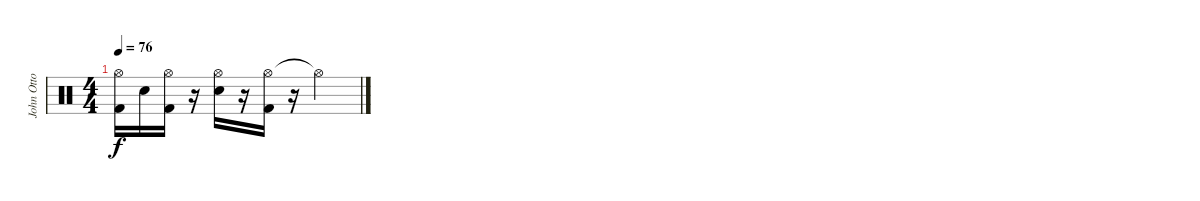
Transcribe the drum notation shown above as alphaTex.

\track ("John Otto" "John Otto") {instrument percussion}
\staff {score}
\articulation defaults
\ts (4 4)
\tempo 76
\clef neutral
\ks c
("Hi-Hat (open)" "Kick (hit) 2").16{dy f} "Snare (hit) 2".16 ("Hi-Hat (open)" "Kick (hit) 2").16 r.16 ("Hi-Hat (open)" "Snare (hit) 2").16 r.16 ("Hi-Hat (open)" "Kick (hit) 2").16 r.16 "Hi-Hat (open)"{t}.2
